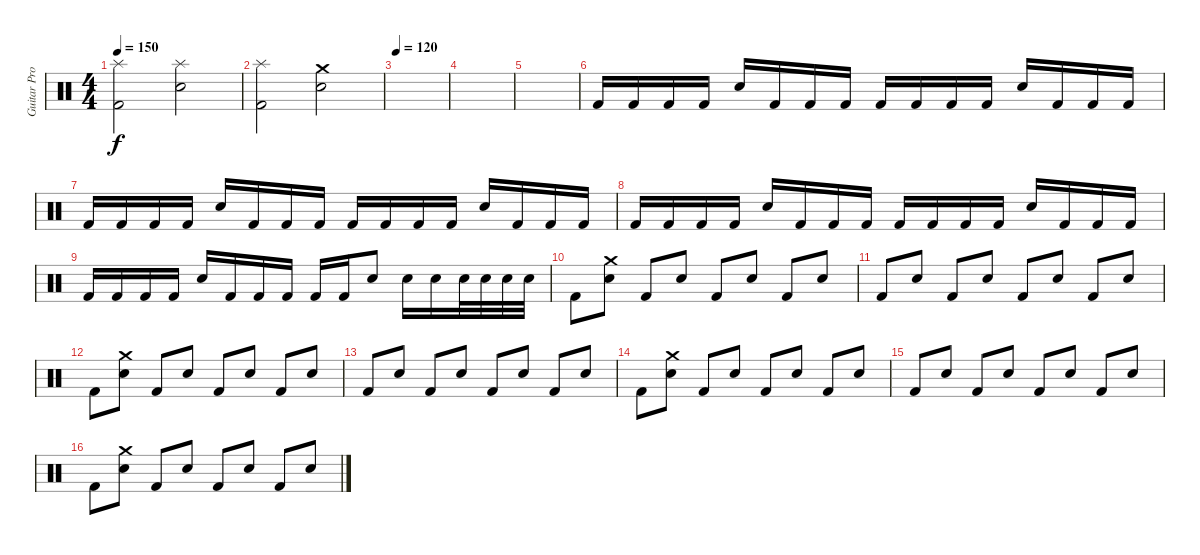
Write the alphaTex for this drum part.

\track ("Guitar Pro" "Guitar Pro") {instrument percussion}
\staff {score}
\articulation defaults
\ts (4 4)
\tempo 150
\clef neutral
\ks c
("Kick (hit) 2" "Splash (hit)").2{dy f} ("Snare (hit) 2" "Splash (hit)").2 |
("Kick (hit) 2" "Splash (hit)").2 ("Snare (hit) 2" "Crash medium (hit)").2 |
\tempo 120
|
|
|
"Kick (hit) 2".16 "Kick (hit) 2".16 "Kick (hit) 2".16 "Kick (hit) 2".16 "Snare (hit) 2".16 "Kick (hit) 2".16 "Kick (hit) 2".16 "Kick (hit) 2".16 "Kick (hit) 2".16 "Kick (hit) 2".16 "Kick (hit) 2".16 "Kick (hit) 2".16 "Snare (hit) 2".16 "Kick (hit) 2".16 "Kick (hit) 2".16 "Kick (hit) 2".16 |
"Kick (hit) 2".16 "Kick (hit) 2".16 "Kick (hit) 2".16 "Kick (hit) 2".16 "Snare (hit) 2".16 "Kick (hit) 2".16 "Kick (hit) 2".16 "Kick (hit) 2".16 "Kick (hit) 2".16 "Kick (hit) 2".16 "Kick (hit) 2".16 "Kick (hit) 2".16 "Snare (hit) 2".16 "Kick (hit) 2".16 "Kick (hit) 2".16 "Kick (hit) 2".16 |
"Kick (hit) 2".16 "Kick (hit) 2".16 "Kick (hit) 2".16 "Kick (hit) 2".16 "Snare (hit) 2".16 "Kick (hit) 2".16 "Kick (hit) 2".16 "Kick (hit) 2".16 "Kick (hit) 2".16 "Kick (hit) 2".16 "Kick (hit) 2".16 "Kick (hit) 2".16 "Snare (hit) 2".16 "Kick (hit) 2".16 "Kick (hit) 2".16 "Kick (hit) 2".16 |
"Kick (hit) 2".16 "Kick (hit) 2".16 "Kick (hit) 2".16 "Kick (hit) 2".16 "Snare (hit) 2".16 "Kick (hit) 2".16 "Kick (hit) 2".16 "Kick (hit) 2".16 "Kick (hit) 2".16 "Kick (hit) 2".16 "Snare (hit) 2".8 "Snare (hit) 2".16 "Snare (hit) 2".16 "Snare (hit) 2".32 "Snare (hit) 2".32 "Snare (hit) 2".32 "Snare (hit) 2".32 |
"Kick (hit) 2".8 ("Snare (hit) 2" "Crash medium (hit)").8 "Kick (hit) 2".8 "Snare (hit) 2".8 "Kick (hit) 2".8 "Snare (hit) 2".8 "Kick (hit) 2".8 "Snare (hit) 2".8 |
"Kick (hit) 2".8 "Snare (hit) 2".8 "Kick (hit) 2".8 "Snare (hit) 2".8 "Kick (hit) 2".8 "Snare (hit) 2".8 "Kick (hit) 2".8 "Snare (hit) 2".8 |
"Kick (hit) 2".8 ("Snare (hit) 2" "Crash medium (hit)").8 "Kick (hit) 2".8 "Snare (hit) 2".8 "Kick (hit) 2".8 "Snare (hit) 2".8 "Kick (hit) 2".8 "Snare (hit) 2".8 |
"Kick (hit) 2".8 "Snare (hit) 2".8 "Kick (hit) 2".8 "Snare (hit) 2".8 "Kick (hit) 2".8 "Snare (hit) 2".8 "Kick (hit) 2".8 "Snare (hit) 2".8 |
"Kick (hit) 2".8 ("Snare (hit) 2" "Crash medium (hit)").8 "Kick (hit) 2".8 "Snare (hit) 2".8 "Kick (hit) 2".8 "Snare (hit) 2".8 "Kick (hit) 2".8 "Snare (hit) 2".8 |
"Kick (hit) 2".8 "Snare (hit) 2".8 "Kick (hit) 2".8 "Snare (hit) 2".8 "Kick (hit) 2".8 "Snare (hit) 2".8 "Kick (hit) 2".8 "Snare (hit) 2".8 |
"Kick (hit) 2".8 ("Snare (hit) 2" "Crash medium (hit)").8 "Kick (hit) 2".8 "Snare (hit) 2".8 "Kick (hit) 2".8 "Snare (hit) 2".8 "Kick (hit) 2".8 "Snare (hit) 2".8
